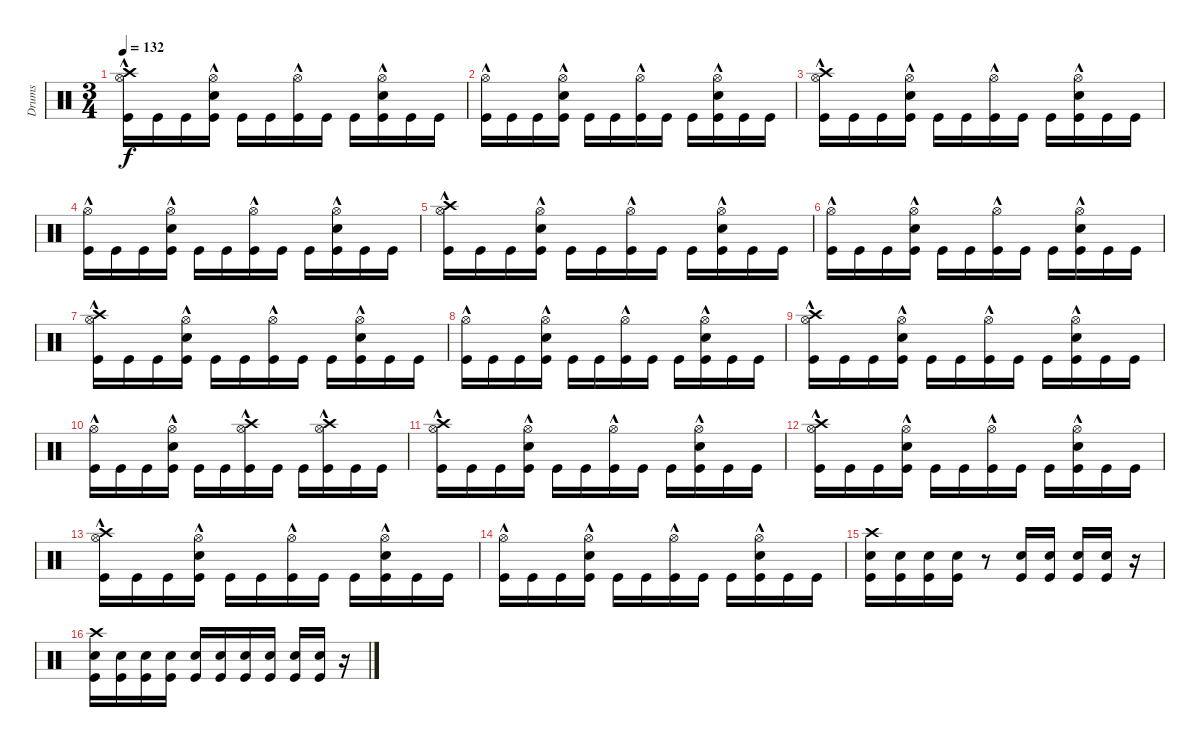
\track ("Drums" "Drums") {instrument percussion}
\staff {score}
\articulation defaults
\ts (3 4)
\tempo 132
\clef neutral
\ks c
("Crash high (hit)" "Hi-Hat (open)"{hac} "Kick (hit)").16{dy f} "Kick (hit)".16 "Kick (hit)".16 ("Hi-Hat (open)"{hac} "Kick (hit)" "Electric Snare (hit)").16 "Kick (hit)".16 "Kick (hit)".16 ("Hi-Hat (open)"{hac} "Kick (hit)").16 "Kick (hit)".16 "Kick (hit)".16 ("Hi-Hat (open)"{hac} "Kick (hit)" "Electric Snare (hit)").16 "Kick (hit)".16 "Kick (hit)".16 |
("Hi-Hat (open)"{hac} "Kick (hit)").16 "Kick (hit)".16 "Kick (hit)".16 ("Hi-Hat (open)"{hac} "Kick (hit)" "Electric Snare (hit)").16 "Kick (hit)".16 "Kick (hit)".16 ("Hi-Hat (open)"{hac} "Kick (hit)").16 "Kick (hit)".16 "Kick (hit)".16 ("Hi-Hat (open)"{hac} "Kick (hit)" "Electric Snare (hit)").16 "Kick (hit)".16 "Kick (hit)".16 |
("Crash high (hit)" "Hi-Hat (open)"{hac} "Kick (hit)").16 "Kick (hit)".16 "Kick (hit)".16 ("Hi-Hat (open)"{hac} "Kick (hit)" "Electric Snare (hit)").16 "Kick (hit)".16 "Kick (hit)".16 ("Hi-Hat (open)"{hac} "Kick (hit)").16 "Kick (hit)".16 "Kick (hit)".16 ("Hi-Hat (open)"{hac} "Kick (hit)" "Electric Snare (hit)").16 "Kick (hit)".16 "Kick (hit)".16 |
("Hi-Hat (open)"{hac} "Kick (hit)").16 "Kick (hit)".16 "Kick (hit)".16 ("Hi-Hat (open)"{hac} "Kick (hit)" "Electric Snare (hit)").16 "Kick (hit)".16 "Kick (hit)".16 ("Hi-Hat (open)"{hac} "Kick (hit)").16 "Kick (hit)".16 "Kick (hit)".16 ("Hi-Hat (open)"{hac} "Kick (hit)" "Electric Snare (hit)").16 "Kick (hit)".16 "Kick (hit)".16 |
("Crash high (hit)" "Hi-Hat (open)"{hac} "Kick (hit)").16 "Kick (hit)".16 "Kick (hit)".16 ("Hi-Hat (open)"{hac} "Kick (hit)" "Electric Snare (hit)").16 "Kick (hit)".16 "Kick (hit)".16 ("Hi-Hat (open)"{hac} "Kick (hit)").16 "Kick (hit)".16 "Kick (hit)".16 ("Hi-Hat (open)"{hac} "Kick (hit)" "Electric Snare (hit)").16 "Kick (hit)".16 "Kick (hit)".16 |
("Hi-Hat (open)"{hac} "Kick (hit)").16 "Kick (hit)".16 "Kick (hit)".16 ("Hi-Hat (open)"{hac} "Kick (hit)" "Electric Snare (hit)").16 "Kick (hit)".16 "Kick (hit)".16 ("Hi-Hat (open)"{hac} "Kick (hit)").16 "Kick (hit)".16 "Kick (hit)".16 ("Hi-Hat (open)"{hac} "Kick (hit)" "Electric Snare (hit)").16 "Kick (hit)".16 "Kick (hit)".16 |
("Crash high (hit)" "Hi-Hat (open)"{hac} "Kick (hit)").16 "Kick (hit)".16 "Kick (hit)".16 ("Hi-Hat (open)"{hac} "Kick (hit)" "Electric Snare (hit)").16 "Kick (hit)".16 "Kick (hit)".16 ("Hi-Hat (open)"{hac} "Kick (hit)").16 "Kick (hit)".16 "Kick (hit)".16 ("Hi-Hat (open)"{hac} "Kick (hit)" "Electric Snare (hit)").16 "Kick (hit)".16 "Kick (hit)".16 |
("Hi-Hat (open)"{hac} "Kick (hit)").16 "Kick (hit)".16 "Kick (hit)".16 ("Hi-Hat (open)"{hac} "Kick (hit)" "Electric Snare (hit)").16 "Kick (hit)".16 "Kick (hit)".16 ("Hi-Hat (open)"{hac} "Kick (hit)").16 "Kick (hit)".16 "Kick (hit)".16 ("Hi-Hat (open)"{hac} "Kick (hit)" "Electric Snare (hit)").16 "Kick (hit)".16 "Kick (hit)".16 |
("Crash high (hit)" "Hi-Hat (open)"{hac} "Kick (hit)").16 "Kick (hit)".16 "Kick (hit)".16 ("Hi-Hat (open)"{hac} "Kick (hit)" "Electric Snare (hit)").16 "Kick (hit)".16 "Kick (hit)".16 ("Hi-Hat (open)"{hac} "Kick (hit)").16 "Kick (hit)".16 "Kick (hit)".16 ("Hi-Hat (open)"{hac} "Kick (hit)" "Electric Snare (hit)").16 "Kick (hit)".16 "Kick (hit)".16 |
("Hi-Hat (open)"{hac} "Kick (hit)").16 "Kick (hit)".16 "Kick (hit)".16 ("Hi-Hat (open)"{hac} "Kick (hit)" "Electric Snare (hit)").16 "Kick (hit)".16 "Kick (hit)".16 ("Hi-Hat (open)"{hac} "Kick (hit)" "Crash high (hit)").16 "Kick (hit)".16 "Kick (hit)".16 ("Hi-Hat (open)"{hac} "Kick (hit)" "Crash high (hit)").16 "Kick (hit)".16 "Kick (hit)".16 |
("Hi-Hat (open)"{hac} "Kick (hit)" "Crash high (hit)").16 "Kick (hit)".16 "Kick (hit)".16 ("Hi-Hat (open)"{hac} "Kick (hit)" "Electric Snare (hit)").16 "Kick (hit)".16 "Kick (hit)".16 ("Hi-Hat (open)"{hac} "Kick (hit)").16 "Kick (hit)".16 "Kick (hit)".16 ("Hi-Hat (open)"{hac} "Kick (hit)" "Electric Snare (hit)").16 "Kick (hit)".16 "Kick (hit)".16 |
("Hi-Hat (open)"{hac} "Kick (hit)" "Crash high (hit)").16 "Kick (hit)".16 "Kick (hit)".16 ("Hi-Hat (open)"{hac} "Kick (hit)" "Electric Snare (hit)").16 "Kick (hit)".16 "Kick (hit)".16 ("Hi-Hat (open)"{hac} "Kick (hit)").16 "Kick (hit)".16 "Kick (hit)".16 ("Hi-Hat (open)"{hac} "Kick (hit)" "Electric Snare (hit)").16 "Kick (hit)".16 "Kick (hit)".16 |
("Crash high (hit)" "Hi-Hat (open)"{hac} "Kick (hit)").16 "Kick (hit)".16 "Kick (hit)".16 ("Hi-Hat (open)"{hac} "Kick (hit)" "Electric Snare (hit)").16 "Kick (hit)".16 "Kick (hit)".16 ("Hi-Hat (open)"{hac} "Kick (hit)").16 "Kick (hit)".16 "Kick (hit)".16 ("Hi-Hat (open)"{hac} "Kick (hit)" "Electric Snare (hit)").16 "Kick (hit)".16 "Kick (hit)".16 |
("Hi-Hat (open)"{hac} "Kick (hit)").16 "Kick (hit)".16 "Kick (hit)".16 ("Hi-Hat (open)"{hac} "Kick (hit)" "Electric Snare (hit)").16 "Kick (hit)".16 "Kick (hit)".16 ("Hi-Hat (open)"{hac} "Kick (hit)").16 "Kick (hit)".16 "Kick (hit)".16 ("Hi-Hat (open)"{hac} "Kick (hit)" "Electric Snare (hit)").16 "Kick (hit)".16 "Kick (hit)".16 |
("Crash high (hit)" "Snare (hit) 2" "Kick (hit)").16 ("Snare (hit) 2" "Kick (hit)").16 ("Snare (hit) 2" "Kick (hit)").16 ("Snare (hit) 2" "Kick (hit)").16 r.8 ("Snare (hit) 2" "Kick (hit)").16 ("Snare (hit) 2" "Kick (hit)").16 ("Snare (hit) 2" "Kick (hit)").16 ("Snare (hit) 2" "Kick (hit)").16 r.16 |
("Crash high (hit)" "Snare (hit) 2" "Kick (hit)").16 ("Snare (hit) 2" "Kick (hit)").16 ("Snare (hit) 2" "Kick (hit)").16 ("Snare (hit) 2" "Kick (hit)").16 ("Snare (hit) 2" "Kick (hit)").16 ("Snare (hit) 2" "Kick (hit)").16 ("Snare (hit) 2" "Kick (hit)").16 ("Snare (hit) 2" "Kick (hit)").16 ("Snare (hit) 2" "Kick (hit)").16 ("Snare (hit) 2" "Kick (hit)").16 r.16
